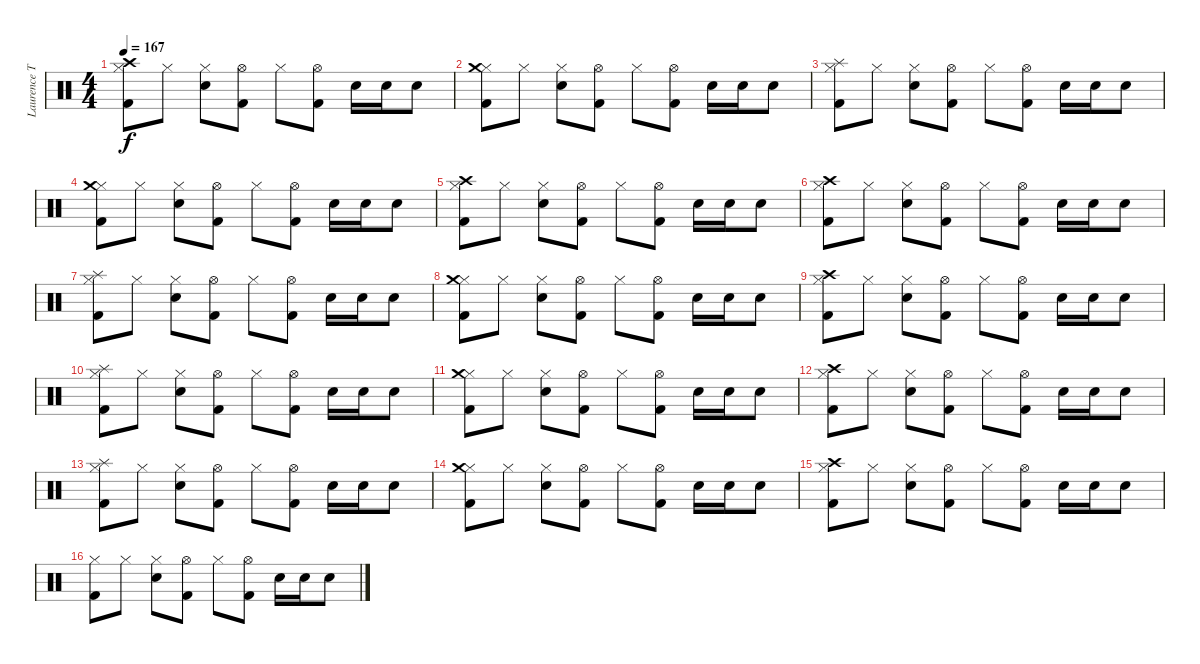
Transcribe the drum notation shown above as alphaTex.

\track ("Laurence Tolhurst" "Laurence T") {instrument percussion}
\staff {score}
\articulation defaults
\ts (4 4)
\tempo 167
\clef neutral
\ks c
("Kick (hit) 2" "Hi-Hat (closed)" "Crash high (hit)").8{dy f} "Hi-Hat (closed)".8 ("Hi-Hat (closed)" "Snare (hit) 2").8 ("Kick (hit) 2" "Hi-Hat (open)").8 "Hi-Hat (closed)".8 ("Hi-Hat (open)" "Kick (hit) 2").8 "Snare (hit) 2".16 "Snare (hit) 2".16 "Snare (hit) 2".8 |
("Kick (hit) 2" "Hi-Hat (closed)" "Crash medium (hit)").8 "Hi-Hat (closed)".8 ("Hi-Hat (closed)" "Snare (hit) 2").8 ("Kick (hit) 2" "Hi-Hat (open)").8 "Hi-Hat (closed)".8 ("Hi-Hat (open)" "Kick (hit) 2").8 "Snare (hit) 2".16 "Snare (hit) 2".16 "Snare (hit) 2".8 |
("Kick (hit) 2" "Hi-Hat (closed)" "Splash (hit)").8 "Hi-Hat (closed)".8 ("Hi-Hat (closed)" "Snare (hit) 2").8 ("Kick (hit) 2" "Hi-Hat (open)").8 "Hi-Hat (closed)".8 ("Hi-Hat (open)" "Kick (hit) 2").8 "Snare (hit) 2".16 "Snare (hit) 2".16 "Snare (hit) 2".8 |
("Kick (hit) 2" "Hi-Hat (closed)" "Crash medium (hit)").8 "Hi-Hat (closed)".8 ("Hi-Hat (closed)" "Snare (hit) 2").8 ("Kick (hit) 2" "Hi-Hat (open)").8 "Hi-Hat (closed)".8 ("Hi-Hat (open)" "Kick (hit) 2").8 "Snare (hit) 2".16 "Snare (hit) 2".16 "Snare (hit) 2".8 |
("Kick (hit) 2" "Hi-Hat (closed)" "Crash high (hit)").8 "Hi-Hat (closed)".8 ("Hi-Hat (closed)" "Snare (hit) 2").8 ("Kick (hit) 2" "Hi-Hat (open)").8 "Hi-Hat (closed)".8 ("Hi-Hat (open)" "Kick (hit) 2").8 "Snare (hit) 2".16 "Snare (hit) 2".16 "Snare (hit) 2".8 |
("Kick (hit) 2" "Hi-Hat (closed)" "Crash high (hit)").8 "Hi-Hat (closed)".8 ("Hi-Hat (closed)" "Snare (hit) 2").8 ("Kick (hit) 2" "Hi-Hat (open)").8 "Hi-Hat (closed)".8 ("Hi-Hat (open)" "Kick (hit) 2").8 "Snare (hit) 2".16 "Snare (hit) 2".16 "Snare (hit) 2".8 |
("Kick (hit) 2" "Hi-Hat (closed)" "Splash (hit)").8 "Hi-Hat (closed)".8 ("Hi-Hat (closed)" "Snare (hit) 2").8 ("Kick (hit) 2" "Hi-Hat (open)").8 "Hi-Hat (closed)".8 ("Hi-Hat (open)" "Kick (hit) 2").8 "Snare (hit) 2".16 "Snare (hit) 2".16 "Snare (hit) 2".8 |
("Kick (hit) 2" "Hi-Hat (closed)" "Crash medium (hit)").8 "Hi-Hat (closed)".8 ("Hi-Hat (closed)" "Snare (hit) 2").8 ("Kick (hit) 2" "Hi-Hat (open)").8 "Hi-Hat (closed)".8 ("Hi-Hat (open)" "Kick (hit) 2").8 "Snare (hit) 2".16 "Snare (hit) 2".16 "Snare (hit) 2".8 |
("Kick (hit) 2" "Hi-Hat (closed)" "Crash high (hit)").8 "Hi-Hat (closed)".8 ("Hi-Hat (closed)" "Snare (hit) 2").8 ("Kick (hit) 2" "Hi-Hat (open)").8 "Hi-Hat (closed)".8 ("Hi-Hat (open)" "Kick (hit) 2").8 "Snare (hit) 2".16 "Snare (hit) 2".16 "Snare (hit) 2".8 |
("Kick (hit) 2" "Hi-Hat (closed)" "Splash (hit)").8 "Hi-Hat (closed)".8 ("Hi-Hat (closed)" "Snare (hit) 2").8 ("Kick (hit) 2" "Hi-Hat (open)").8 "Hi-Hat (closed)".8 ("Hi-Hat (open)" "Kick (hit) 2").8 "Snare (hit) 2".16 "Snare (hit) 2".16 "Snare (hit) 2".8 |
("Kick (hit) 2" "Hi-Hat (closed)" "Crash medium (hit)").8 "Hi-Hat (closed)".8 ("Hi-Hat (closed)" "Snare (hit) 2").8 ("Kick (hit) 2" "Hi-Hat (open)").8 "Hi-Hat (closed)".8 ("Hi-Hat (open)" "Kick (hit) 2").8 "Snare (hit) 2".16 "Snare (hit) 2".16 "Snare (hit) 2".8 |
("Kick (hit) 2" "Hi-Hat (closed)" "Crash high (hit)").8 "Hi-Hat (closed)".8 ("Hi-Hat (closed)" "Snare (hit) 2").8 ("Kick (hit) 2" "Hi-Hat (open)").8 "Hi-Hat (closed)".8 ("Hi-Hat (open)" "Kick (hit) 2").8 "Snare (hit) 2".16 "Snare (hit) 2".16 "Snare (hit) 2".8 |
("Kick (hit) 2" "Hi-Hat (closed)" "Splash (hit)").8 "Hi-Hat (closed)".8 ("Hi-Hat (closed)" "Snare (hit) 2").8 ("Kick (hit) 2" "Hi-Hat (open)").8 "Hi-Hat (closed)".8 ("Hi-Hat (open)" "Kick (hit) 2").8 "Snare (hit) 2".16 "Snare (hit) 2".16 "Snare (hit) 2".8 |
("Kick (hit) 2" "Hi-Hat (closed)" "Crash medium (hit)").8 "Hi-Hat (closed)".8 ("Hi-Hat (closed)" "Snare (hit) 2").8 ("Kick (hit) 2" "Hi-Hat (open)").8 "Hi-Hat (closed)".8 ("Hi-Hat (open)" "Kick (hit) 2").8 "Snare (hit) 2".16 "Snare (hit) 2".16 "Snare (hit) 2".8 |
("Kick (hit) 2" "Hi-Hat (closed)" "Crash high (hit)").8 "Hi-Hat (closed)".8 ("Hi-Hat (closed)" "Snare (hit) 2").8 ("Kick (hit) 2" "Hi-Hat (open)").8 "Hi-Hat (closed)".8 ("Hi-Hat (open)" "Kick (hit) 2").8 "Snare (hit) 2".16 "Snare (hit) 2".16 "Snare (hit) 2".8 |
("Kick (hit) 2" "Hi-Hat (closed)").8 "Hi-Hat (closed)".8 ("Hi-Hat (closed)" "Snare (hit) 2").8 ("Kick (hit) 2" "Hi-Hat (open)").8 "Hi-Hat (closed)".8 ("Hi-Hat (open)" "Kick (hit) 2").8 "Snare (hit) 2".16 "Snare (hit) 2".16 "Snare (hit) 2".8
